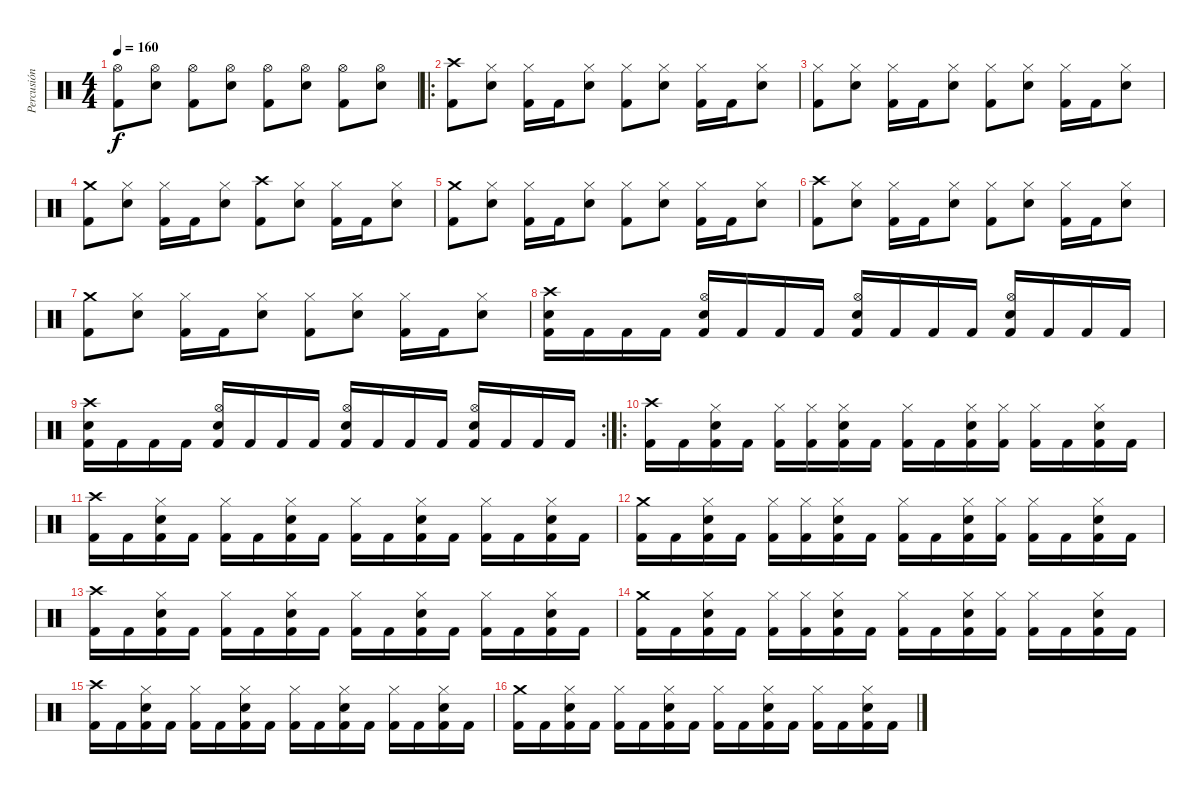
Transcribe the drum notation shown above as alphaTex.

\track ("Percusión" "Percusión") {instrument percussion}
\staff {score}
\articulation defaults
\ts (4 4)
\tempo 160
\clef neutral
\ks c
("Kick (hit) 2" "Hi-Hat (open)").8{dy f} ("Snare (hit) 2" "Hi-Hat (open)").8 ("Kick (hit) 2" "Hi-Hat (open)").8 ("Snare (hit) 2" "Hi-Hat (open)").8 ("Kick (hit) 2" "Hi-Hat (open)").8 ("Snare (hit) 2" "Hi-Hat (open)").8 ("Kick (hit) 2" "Hi-Hat (open)").8 ("Snare (hit) 2" "Hi-Hat (open)").8 |
\ro
("Kick (hit) 2" "Crash high (hit)").8 ("Snare (hit) 2" "Hi-Hat (closed)").8 ("Kick (hit) 2" "Hi-Hat (closed)").16 "Kick (hit) 2".16 ("Snare (hit) 2" "Hi-Hat (closed)").8 ("Kick (hit) 2" "Hi-Hat (closed)").8 ("Snare (hit) 2" "Hi-Hat (closed)").8 ("Kick (hit) 2" "Hi-Hat (closed)").16 "Kick (hit) 2".16 ("Snare (hit) 2" "Hi-Hat (closed)").8 |
("Kick (hit) 2" "Hi-Hat (closed)").8 ("Snare (hit) 2" "Hi-Hat (closed)").8 ("Kick (hit) 2" "Hi-Hat (closed)").16 "Kick (hit) 2".16 ("Snare (hit) 2" "Hi-Hat (closed)").8 ("Kick (hit) 2" "Hi-Hat (closed)").8 ("Snare (hit) 2" "Hi-Hat (closed)").8 ("Kick (hit) 2" "Hi-Hat (closed)").16 "Kick (hit) 2".16 ("Snare (hit) 2" "Hi-Hat (closed)").8 |
("Kick (hit) 2" "Crash medium (hit)").8 ("Snare (hit) 2" "Hi-Hat (closed)").8 ("Kick (hit) 2" "Hi-Hat (closed)").16 "Kick (hit) 2".16 ("Snare (hit) 2" "Hi-Hat (closed)").8 ("Kick (hit) 2" "Crash high (hit)").8 ("Snare (hit) 2" "Hi-Hat (closed)").8 ("Kick (hit) 2" "Hi-Hat (closed)").16 "Kick (hit) 2".16 ("Snare (hit) 2" "Hi-Hat (closed)").8 |
("Kick (hit) 2" "Crash medium (hit)").8 ("Snare (hit) 2" "Hi-Hat (closed)").8 ("Kick (hit) 2" "Hi-Hat (closed)").16 "Kick (hit) 2".16 ("Snare (hit) 2" "Hi-Hat (closed)").8 ("Kick (hit) 2" "Hi-Hat (closed)").8 ("Snare (hit) 2" "Hi-Hat (closed)").8 ("Kick (hit) 2" "Hi-Hat (closed)").16 "Kick (hit) 2".16 ("Snare (hit) 2" "Hi-Hat (closed)").8 |
("Kick (hit) 2" "Crash high (hit)").8 ("Snare (hit) 2" "Hi-Hat (closed)").8 ("Kick (hit) 2" "Hi-Hat (closed)").16 "Kick (hit) 2".16 ("Snare (hit) 2" "Hi-Hat (closed)").8 ("Kick (hit) 2" "Hi-Hat (closed)").8 ("Snare (hit) 2" "Hi-Hat (closed)").8 ("Kick (hit) 2" "Hi-Hat (closed)").16 "Kick (hit) 2".16 ("Snare (hit) 2" "Hi-Hat (closed)").8 |
("Kick (hit) 2" "Crash medium (hit)").8 ("Snare (hit) 2" "Hi-Hat (closed)").8 ("Kick (hit) 2" "Hi-Hat (closed)").16 "Kick (hit) 2".16 ("Snare (hit) 2" "Hi-Hat (closed)").8 ("Kick (hit) 2" "Hi-Hat (closed)").8 ("Snare (hit) 2" "Hi-Hat (closed)").8 ("Kick (hit) 2" "Hi-Hat (closed)").16 "Kick (hit) 2".16 ("Snare (hit) 2" "Hi-Hat (closed)").8 |
("Kick (hit) 2" "Snare (hit) 2" "Crash high (hit)").16 "Kick (hit) 2".16 "Kick (hit) 2".16 "Kick (hit) 2".16 ("Kick (hit) 2" "Snare (hit) 2" "Hi-Hat (open)").16 "Kick (hit) 2".16 "Kick (hit) 2".16 "Kick (hit) 2".16 ("Kick (hit) 2" "Snare (hit) 2" "Hi-Hat (open)").16 "Kick (hit) 2".16 "Kick (hit) 2".16 "Kick (hit) 2".16 ("Kick (hit) 2" "Snare (hit) 2" "Hi-Hat (open)").16 "Kick (hit) 2".16 "Kick (hit) 2".16 "Kick (hit) 2".16 |
\rc 2
("Kick (hit) 2" "Snare (hit) 2" "Crash high (hit)").16 "Kick (hit) 2".16 "Kick (hit) 2".16 "Kick (hit) 2".16 ("Kick (hit) 2" "Snare (hit) 2" "Hi-Hat (open)").16 "Kick (hit) 2".16 "Kick (hit) 2".16 "Kick (hit) 2".16 ("Kick (hit) 2" "Snare (hit) 2" "Hi-Hat (open)").16 "Kick (hit) 2".16 "Kick (hit) 2".16 "Kick (hit) 2".16 ("Kick (hit) 2" "Snare (hit) 2" "Hi-Hat (open)").16 "Kick (hit) 2".16 "Kick (hit) 2".16 "Kick (hit) 2".16 |
\ro
("Kick (hit) 2" "Crash high (hit)").16 "Kick (hit) 2".16 ("Kick (hit) 2" "Snare (hit) 2" "Hi-Hat (closed)").16 "Kick (hit) 2".16 ("Kick (hit) 2" "Hi-Hat (closed)").16 ("Kick (hit) 2" "Hi-Hat (closed)").16 ("Kick (hit) 2" "Snare (hit) 2" "Hi-Hat (closed)").16 "Kick (hit) 2".16 ("Kick (hit) 2" "Hi-Hat (closed)").16 "Kick (hit) 2".16 ("Kick (hit) 2" "Snare (hit) 2" "Hi-Hat (closed)").16 ("Kick (hit) 2" "Hi-Hat (closed)").16 ("Kick (hit) 2" "Hi-Hat (closed)").16 "Kick (hit) 2".16 ("Kick (hit) 2" "Snare (hit) 2" "Hi-Hat (closed)").16 "Kick (hit) 2".16 |
("Kick (hit) 2" "Crash high (hit)").16 "Kick (hit) 2".16 ("Kick (hit) 2" "Snare (hit) 2" "Hi-Hat (closed)").16 "Kick (hit) 2".16 ("Kick (hit) 2" "Hi-Hat (closed)").16 "Kick (hit) 2".16 ("Kick (hit) 2" "Snare (hit) 2" "Hi-Hat (closed)").16 "Kick (hit) 2".16 ("Kick (hit) 2" "Hi-Hat (closed)").16 "Kick (hit) 2".16 ("Kick (hit) 2" "Snare (hit) 2" "Hi-Hat (closed)").16 "Kick (hit) 2".16 ("Kick (hit) 2" "Hi-Hat (closed)").16 "Kick (hit) 2".16 ("Kick (hit) 2" "Snare (hit) 2" "Hi-Hat (closed)").16 "Kick (hit) 2".16 |
("Kick (hit) 2" "Crash medium (hit)").16 "Kick (hit) 2".16 ("Kick (hit) 2" "Snare (hit) 2" "Hi-Hat (closed)").16 "Kick (hit) 2".16 ("Kick (hit) 2" "Hi-Hat (closed)").16 ("Kick (hit) 2" "Hi-Hat (closed)").16 ("Kick (hit) 2" "Snare (hit) 2" "Hi-Hat (closed)").16 "Kick (hit) 2".16 ("Kick (hit) 2" "Hi-Hat (closed)").16 "Kick (hit) 2".16 ("Kick (hit) 2" "Snare (hit) 2" "Hi-Hat (closed)").16 ("Kick (hit) 2" "Hi-Hat (closed)").16 ("Kick (hit) 2" "Hi-Hat (closed)").16 "Kick (hit) 2".16 ("Kick (hit) 2" "Snare (hit) 2" "Hi-Hat (closed)").16 "Kick (hit) 2".16 |
("Kick (hit) 2" "Crash high (hit)").16 "Kick (hit) 2".16 ("Kick (hit) 2" "Snare (hit) 2" "Hi-Hat (closed)").16 "Kick (hit) 2".16 ("Kick (hit) 2" "Hi-Hat (closed)").16 "Kick (hit) 2".16 ("Kick (hit) 2" "Snare (hit) 2" "Hi-Hat (closed)").16 "Kick (hit) 2".16 ("Kick (hit) 2" "Hi-Hat (closed)").16 "Kick (hit) 2".16 ("Kick (hit) 2" "Snare (hit) 2" "Hi-Hat (closed)").16 "Kick (hit) 2".16 ("Kick (hit) 2" "Hi-Hat (closed)").16 "Kick (hit) 2".16 ("Kick (hit) 2" "Snare (hit) 2" "Hi-Hat (closed)").16 "Kick (hit) 2".16 |
("Kick (hit) 2" "Crash medium (hit)").16 "Kick (hit) 2".16 ("Kick (hit) 2" "Snare (hit) 2" "Hi-Hat (closed)").16 "Kick (hit) 2".16 ("Kick (hit) 2" "Hi-Hat (closed)").16 ("Kick (hit) 2" "Hi-Hat (closed)").16 ("Kick (hit) 2" "Snare (hit) 2" "Hi-Hat (closed)").16 "Kick (hit) 2".16 ("Kick (hit) 2" "Hi-Hat (closed)").16 "Kick (hit) 2".16 ("Kick (hit) 2" "Snare (hit) 2" "Hi-Hat (closed)").16 ("Kick (hit) 2" "Hi-Hat (closed)").16 ("Kick (hit) 2" "Hi-Hat (closed)").16 "Kick (hit) 2".16 ("Kick (hit) 2" "Snare (hit) 2" "Hi-Hat (closed)").16 "Kick (hit) 2".16 |
("Kick (hit) 2" "Crash high (hit)").16 "Kick (hit) 2".16 ("Kick (hit) 2" "Snare (hit) 2" "Hi-Hat (closed)").16 "Kick (hit) 2".16 ("Kick (hit) 2" "Hi-Hat (closed)").16 "Kick (hit) 2".16 ("Kick (hit) 2" "Snare (hit) 2" "Hi-Hat (closed)").16 "Kick (hit) 2".16 ("Kick (hit) 2" "Hi-Hat (closed)").16 "Kick (hit) 2".16 ("Kick (hit) 2" "Snare (hit) 2" "Hi-Hat (closed)").16 "Kick (hit) 2".16 ("Kick (hit) 2" "Hi-Hat (closed)").16 "Kick (hit) 2".16 ("Kick (hit) 2" "Snare (hit) 2" "Hi-Hat (closed)").16 "Kick (hit) 2".16 |
("Kick (hit) 2" "Crash medium (hit)").16 "Kick (hit) 2".16 ("Kick (hit) 2" "Snare (hit) 2" "Hi-Hat (closed)").16 "Kick (hit) 2".16 ("Kick (hit) 2" "Hi-Hat (closed)").16 "Kick (hit) 2".16 ("Kick (hit) 2" "Snare (hit) 2" "Hi-Hat (closed)").16 "Kick (hit) 2".16 ("Kick (hit) 2" "Hi-Hat (closed)").16 "Kick (hit) 2".16 ("Kick (hit) 2" "Snare (hit) 2" "Hi-Hat (closed)").16 "Kick (hit) 2".16 ("Kick (hit) 2" "Hi-Hat (closed)").16 "Kick (hit) 2".16 ("Kick (hit) 2" "Snare (hit) 2" "Hi-Hat (closed)").16 "Kick (hit) 2".16
